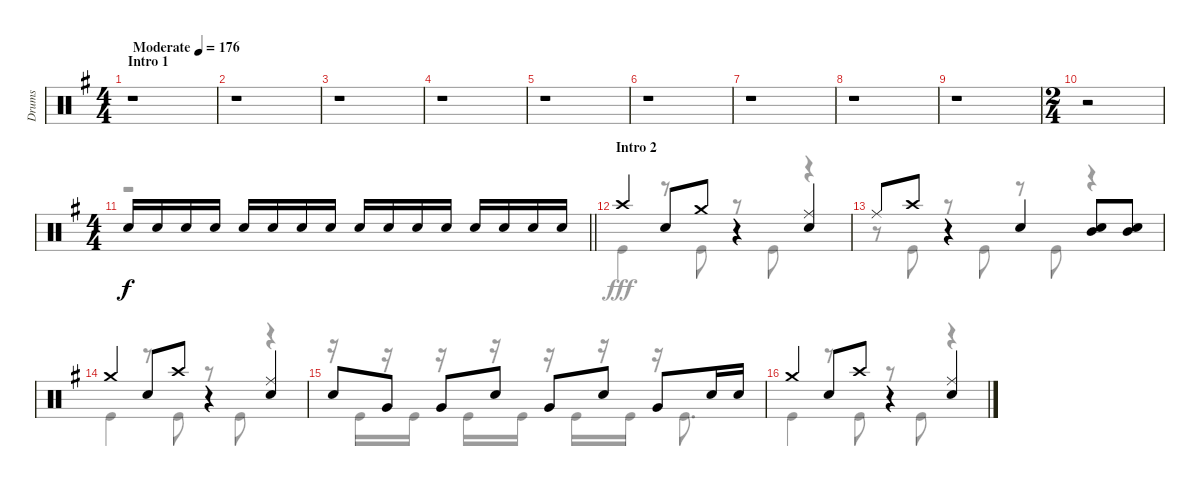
\track ("Drums" "Drums") {instrument percussion}
\staff {score}
\articulation defaults
\voice
\ts (4 4)
\section ("" "Intro 1")
\tempo (176 "Moderate")
\clef neutral
\ks g
r.1{dy f} |
r.1 |
r.1 |
r.1 |
r.1 |
r.1 |
r.1 |
r.1 |
r.1 |
\ts (2 4)
r.2 |
\ts (4 4)
\barLineRight lightlight "Snare (hit) 2".16 "Snare (hit) 2".16 "Snare (hit) 2".16 "Snare (hit) 2".16 "Snare (hit) 2".16 "Snare (hit) 2".16 "Snare (hit) 2".16 "Snare (hit) 2".16 "Snare (hit) 2".16 "Snare (hit) 2".16 "Snare (hit) 2".16 "Snare (hit) 2".16 "Snare (hit) 2".16 "Snare (hit) 2".16 "Snare (hit) 2".16 "Snare (hit) 2".16
|
\section ("" "Intro 2")
"Crash high (hit)".4 "Snare (hit) 2".8 "Crash medium (hit)".8 r.4 ("Ride (middle)" "Snare (hit) 2").4 |
"Ride (middle)".8 "Crash high (hit)".8 r.4 "Snare (hit) 2".4 ("Mid Tom (hit)" "Snare (hit) 2").8 ("Mid Tom (hit)" "Snare (hit) 2").8 |
"Crash medium (hit)".4 "Snare (hit) 2".8 "Crash high (hit)".8 r.4 ("Ride (middle)" "Snare (hit) 2").4 |
"Snare (hit) 2".8 "Very Low Tom (hit)".8 "Very Low Tom (hit)".8 "Snare (hit) 2".8 "Very Low Tom (hit)".8 "Snare (hit) 2".8 "Very Low Tom (hit)".8 "Snare (hit) 2".16 "Snare (hit) 2".16 |
"Crash medium (hit)".4 "Snare (hit) 2".8 "Crash high (hit)".8 r.4 ("Ride (middle)" "Snare (hit) 2").4
\voice
\clef neutral
\ottava regular
\simile none
\ks g
r.1{dy fff} |
r.1 |
r.1 |
r.1 |
r.1 |
r.1 |
r.1 |
r.1 |
r.1 |
r.2 |
\barLineRight lightlight
r.1 |
"Kick (hit)".4 r.8 "Kick (hit)".8 r.8 "Kick (hit)".8 r.4 |
r.8 "Kick (hit)".8 r.8 "Kick (hit)".8 r.8 "Kick (hit)".8 r.4 |
"Kick (hit)".4 r.8 "Kick (hit)".8 r.8 "Kick (hit)".8 r.4 |
r.16 "Kick (hit)".16 r.16 "Kick (hit)".16 r.16 "Kick (hit)".16 r.16 "Kick (hit)".16 r.16 "Kick (hit)".16 r.16 "Kick (hit)".16 r.16 "Kick (hit)".8{d} |
"Kick (hit)".4 r.8 "Kick (hit)".8 r.8 "Kick (hit)".8 r.4
